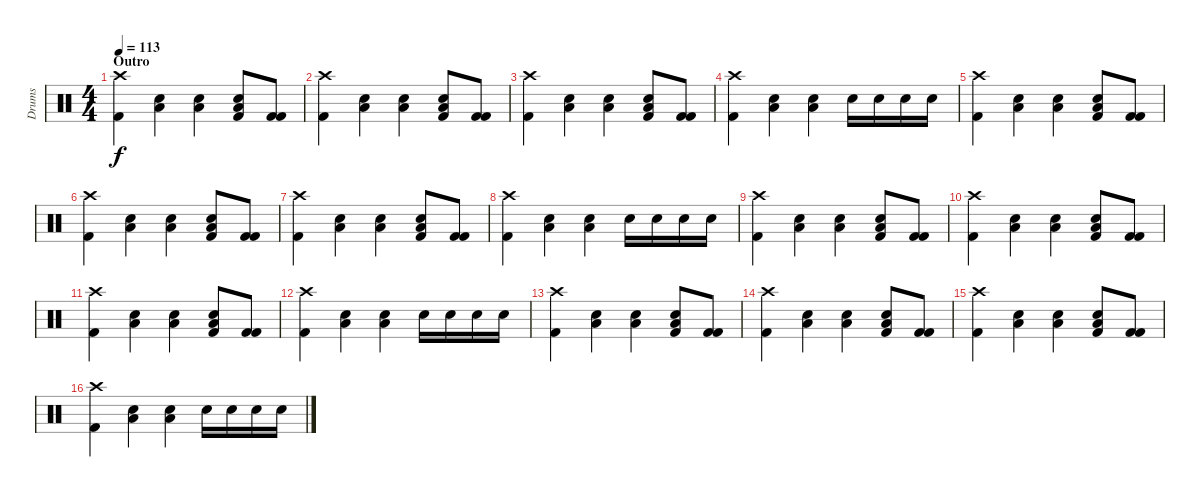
\track ("Drums" "Drums") {instrument percussion}
\staff {score}
\articulation defaults
\ts (4 4)
\section ("" "Outro")
\tempo 113
\clef neutral
\ks c
("Crash high (hit)" "Kick (hit) 2").4{dy f} ("Low Tom (hit)" "Electric Snare (hit)").4 ("Low Tom (hit)" "Electric Snare (hit)").4 ("Low Tom (hit)" "Kick (hit) 2" "Electric Snare (hit)").8 ("Kick (hit) 2" "Kick (hit) 2").8 |
("Crash high (hit)" "Kick (hit) 2").4 ("Low Tom (hit)" "Electric Snare (hit)").4 ("Low Tom (hit)" "Electric Snare (hit)").4 ("Low Tom (hit)" "Kick (hit) 2" "Electric Snare (hit)").8 ("Kick (hit) 2" "Kick (hit) 2").8 |
("Crash high (hit)" "Kick (hit) 2").4 ("Low Tom (hit)" "Electric Snare (hit)").4 ("Low Tom (hit)" "Electric Snare (hit)").4 ("Low Tom (hit)" "Kick (hit) 2" "Electric Snare (hit)").8 ("Kick (hit) 2" "Kick (hit) 2").8 |
("Crash high (hit)" "Kick (hit) 2").4 ("Low Tom (hit)" "Electric Snare (hit)").4 ("Low Tom (hit)" "Electric Snare (hit)").4 "Electric Snare (hit)".16 "Electric Snare (hit)".16 "Electric Snare (hit)".16 "Electric Snare (hit)".16 |
("Crash high (hit)" "Kick (hit) 2").4 ("Low Tom (hit)" "Electric Snare (hit)").4 ("Low Tom (hit)" "Electric Snare (hit)").4 ("Low Tom (hit)" "Kick (hit) 2" "Electric Snare (hit)").8 ("Kick (hit) 2" "Kick (hit) 2").8 |
("Crash high (hit)" "Kick (hit) 2").4 ("Low Tom (hit)" "Electric Snare (hit)").4 ("Low Tom (hit)" "Electric Snare (hit)").4 ("Low Tom (hit)" "Kick (hit) 2" "Electric Snare (hit)").8 ("Kick (hit) 2" "Kick (hit) 2").8 |
("Crash high (hit)" "Kick (hit) 2").4 ("Low Tom (hit)" "Electric Snare (hit)").4 ("Low Tom (hit)" "Electric Snare (hit)").4 ("Low Tom (hit)" "Kick (hit) 2" "Electric Snare (hit)").8 ("Kick (hit) 2" "Kick (hit) 2").8 |
("Crash high (hit)" "Kick (hit) 2").4 ("Low Tom (hit)" "Electric Snare (hit)").4 ("Low Tom (hit)" "Electric Snare (hit)").4 "Electric Snare (hit)".16 "Electric Snare (hit)".16 "Electric Snare (hit)".16 "Electric Snare (hit)".16 |
("Crash high (hit)" "Kick (hit) 2").4 ("Low Tom (hit)" "Electric Snare (hit)").4 ("Low Tom (hit)" "Electric Snare (hit)").4 ("Low Tom (hit)" "Kick (hit) 2" "Electric Snare (hit)").8 ("Kick (hit) 2" "Kick (hit) 2").8 |
("Crash high (hit)" "Kick (hit) 2").4 ("Low Tom (hit)" "Electric Snare (hit)").4 ("Low Tom (hit)" "Electric Snare (hit)").4 ("Low Tom (hit)" "Kick (hit) 2" "Electric Snare (hit)").8 ("Kick (hit) 2" "Kick (hit) 2").8 |
("Crash high (hit)" "Kick (hit) 2").4 ("Low Tom (hit)" "Electric Snare (hit)").4 ("Low Tom (hit)" "Electric Snare (hit)").4 ("Low Tom (hit)" "Kick (hit) 2" "Electric Snare (hit)").8 ("Kick (hit) 2" "Kick (hit) 2").8 |
("Crash high (hit)" "Kick (hit) 2").4 ("Low Tom (hit)" "Electric Snare (hit)").4 ("Low Tom (hit)" "Electric Snare (hit)").4 "Electric Snare (hit)".16 "Electric Snare (hit)".16 "Electric Snare (hit)".16 "Electric Snare (hit)".16 |
("Crash high (hit)" "Kick (hit) 2").4 ("Low Tom (hit)" "Electric Snare (hit)").4 ("Low Tom (hit)" "Electric Snare (hit)").4 ("Low Tom (hit)" "Kick (hit) 2" "Electric Snare (hit)").8 ("Kick (hit) 2" "Kick (hit) 2").8 |
("Crash high (hit)" "Kick (hit) 2").4 ("Low Tom (hit)" "Electric Snare (hit)").4 ("Low Tom (hit)" "Electric Snare (hit)").4 ("Low Tom (hit)" "Kick (hit) 2" "Electric Snare (hit)").8 ("Kick (hit) 2" "Kick (hit) 2").8 |
("Crash high (hit)" "Kick (hit) 2").4 ("Low Tom (hit)" "Electric Snare (hit)").4 ("Low Tom (hit)" "Electric Snare (hit)").4 ("Low Tom (hit)" "Kick (hit) 2" "Electric Snare (hit)").8 ("Kick (hit) 2" "Kick (hit) 2").8 |
("Crash high (hit)" "Kick (hit) 2").4 ("Low Tom (hit)" "Electric Snare (hit)").4 ("Low Tom (hit)" "Electric Snare (hit)").4 "Electric Snare (hit)".16 "Electric Snare (hit)".16 "Electric Snare (hit)".16 "Electric Snare (hit)".16
